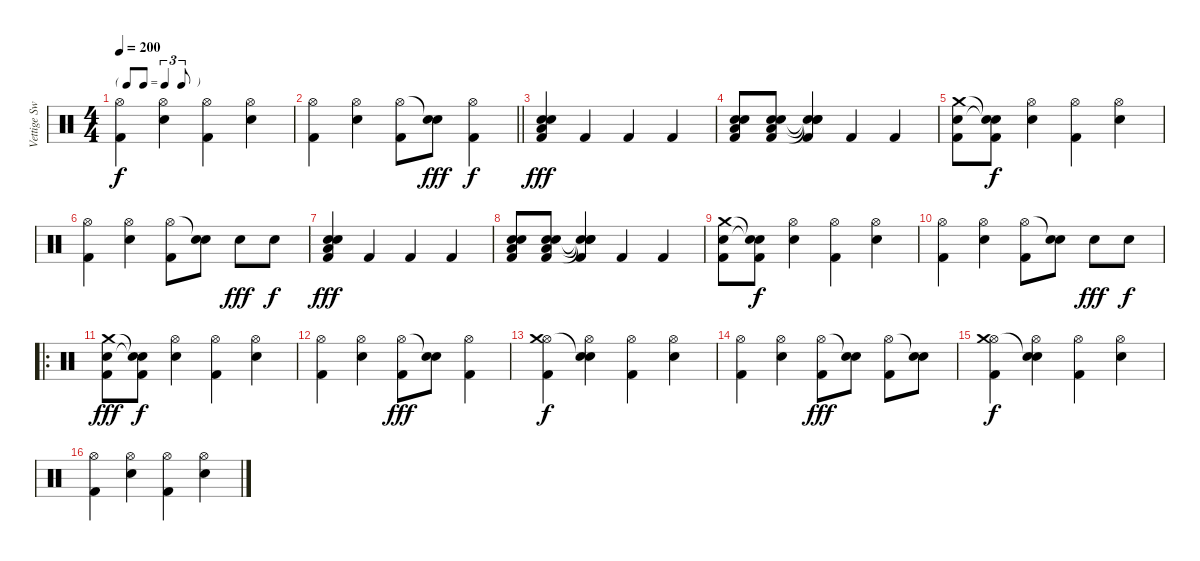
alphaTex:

\track ("Vettige Swa" "Vettige Sw") {instrument percussion}
\staff {score}
\articulation defaults
\ts (4 4)
\tf triplet8th
\tempo 200
\clef neutral
\ks c
("Hi-Hat (open)" "Kick (hit) 2").4{dy f} ("Hi-Hat (open)" "Electric Snare (hit)").4 ("Hi-Hat (open)" "Kick (hit) 2").4 ("Hi-Hat (open)" "Electric Snare (hit)").4 |
\barLineRight lightlight
("Hi-Hat (open)" "Kick (hit) 2").4 ("Hi-Hat (open)" "Electric Snare (hit)").4 ("Hi-Hat (open)" "Kick (hit) 2").8 ("Snare (hit)"{t} "Electric Snare (hit)").8{dy fff} ("Hi-Hat (open)" "Kick (hit) 2").4{dy f} |
("Electric Snare (hit)" "Electric Snare (hit)" "Kick (hit) 2" "Low Floor Tom (hit)").4{dy fff} "Kick (hit) 2".4 "Kick (hit) 2".4 "Kick (hit) 2".4 |
("Electric Snare (hit)" "Electric Snare (hit)" "Kick (hit) 2" "Low Floor Tom (hit)").8 ("Electric Snare (hit)" "Electric Snare (hit)" "Kick (hit) 2" "Low Floor Tom (hit)").8 ("Kick (hit) 2" "Snare (hit)"{t} "Snare (hit)"{t} "Snare (hit)"{t}).4 "Kick (hit) 2".4 "Kick (hit) 2".4 |
("Electric Snare (hit)" "Kick (hit) 2" "Crash medium (hit)").8 ("Snare (hit)"{t} "Kick (hit) 2" "Snare (hit)"{t}).8{dy f} ("Hi-Hat (open)" "Electric Snare (hit)").4 ("Hi-Hat (open)" "Kick (hit) 2").4 ("Hi-Hat (open)" "Electric Snare (hit)").4 |
("Hi-Hat (open)" "Kick (hit) 2").4 ("Hi-Hat (open)" "Electric Snare (hit)").4 ("Hi-Hat (open)" "Kick (hit) 2").8 ("Snare (hit)"{t} "Electric Snare (hit)").8 "Electric Snare (hit)".8{dy fff} "Electric Snare (hit)".8{dy f} |
("Electric Snare (hit)" "Electric Snare (hit)" "Kick (hit) 2" "Low Floor Tom (hit)").4{dy fff} "Kick (hit) 2".4 "Kick (hit) 2".4 "Kick (hit) 2".4 |
("Electric Snare (hit)" "Electric Snare (hit)" "Kick (hit) 2" "Low Floor Tom (hit)").8 ("Electric Snare (hit)" "Electric Snare (hit)" "Kick (hit) 2" "Low Floor Tom (hit)").8 ("Kick (hit) 2" "Snare (hit)"{t} "Snare (hit)"{t} "Snare (hit)"{t}).4 "Kick (hit) 2".4 "Kick (hit) 2".4 |
("Electric Snare (hit)" "Kick (hit) 2" "Crash medium (hit)").8 ("Snare (hit)"{t} "Kick (hit) 2" "Snare (hit)"{t}).8{dy f} ("Hi-Hat (open)" "Electric Snare (hit)").4 ("Hi-Hat (open)" "Kick (hit) 2").4 ("Hi-Hat (open)" "Electric Snare (hit)").4 |
("Hi-Hat (open)" "Kick (hit) 2").4 ("Hi-Hat (open)" "Electric Snare (hit)").4 ("Hi-Hat (open)" "Kick (hit) 2").8 ("Snare (hit)"{t} "Electric Snare (hit)").8 "Electric Snare (hit)".8{dy fff} "Electric Snare (hit)".8{dy f} |
\ro
("Electric Snare (hit)" "Kick (hit) 2" "Crash medium (hit)").8{dy fff} ("Snare (hit)"{t} "Kick (hit) 2" "Snare (hit)"{t}).8{dy f} ("Hi-Hat (open)" "Electric Snare (hit)").4 ("Hi-Hat (open)" "Kick (hit) 2").4 ("Hi-Hat (open)" "Electric Snare (hit)").4 |
("Hi-Hat (open)" "Kick (hit) 2").4 ("Hi-Hat (open)" "Electric Snare (hit)").4 ("Hi-Hat (open)" "Kick (hit) 2").8{dy fff} ("Snare (hit)"{t} "Electric Snare (hit)").8 ("Hi-Hat (open)" "Kick (hit) 2").4 |
("Hi-Hat (open)" "Kick (hit) 2" "Crash medium (hit)").4{dy f} ("Hi-Hat (open)" "Electric Snare (hit)" "Snare (hit)"{t}).4 ("Hi-Hat (open)" "Kick (hit) 2").4 ("Hi-Hat (open)" "Electric Snare (hit)").4 |
("Hi-Hat (open)" "Kick (hit) 2").4 ("Hi-Hat (open)" "Electric Snare (hit)").4 ("Hi-Hat (open)" "Kick (hit) 2").8{dy fff} ("Snare (hit)"{t} "Electric Snare (hit)").8 ("Hi-Hat (open)" "Kick (hit) 2").8 ("Snare (hit)"{t} "Electric Snare (hit)").8 |
("Hi-Hat (open)" "Kick (hit) 2" "Crash medium (hit)").4{dy f} ("Hi-Hat (open)" "Electric Snare (hit)" "Snare (hit)"{t}).4 ("Hi-Hat (open)" "Kick (hit) 2").4 ("Hi-Hat (open)" "Electric Snare (hit)").4 |
("Hi-Hat (open)" "Kick (hit) 2").4 ("Hi-Hat (open)" "Electric Snare (hit)").4 ("Hi-Hat (open)" "Kick (hit) 2").4 ("Hi-Hat (open)" "Electric Snare (hit)").4
